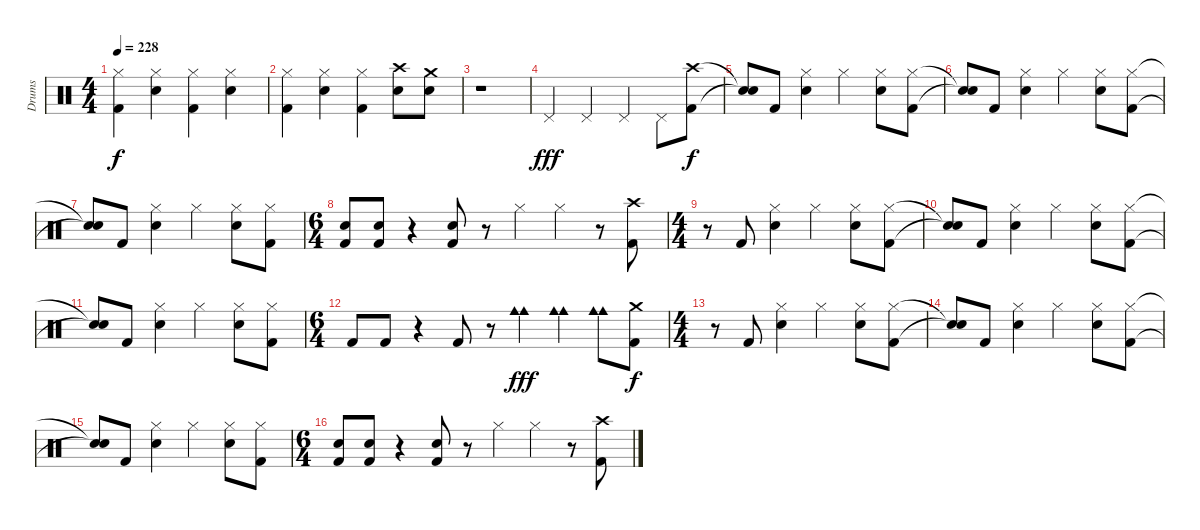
\track ("Drums" "Drums") {instrument percussion}
\staff {score}
\articulation defaults
\ts (4 4)
\tempo 228
\clef neutral
\ks c
("Hi-Hat (closed)" "Kick (hit) 2").4{dy f} ("Hi-Hat (closed)" "Electric Snare (hit)").4 ("Hi-Hat (closed)" "Kick (hit) 2").4 ("Hi-Hat (closed)" "Electric Snare (hit)").4 |
("Hi-Hat (closed)" "Kick (hit) 2").4 ("Hi-Hat (closed)" "Electric Snare (hit)").4 ("Hi-Hat (closed)" "Kick (hit) 2").4 ("Crash high (hit)" "Electric Snare (hit)").8 ("Crash medium (hit)" "Electric Snare (hit)").8 |
r.1 |
"Pedal Hi-Hat (hit)".4{dy fff} "Pedal Hi-Hat (hit)".4 "Pedal Hi-Hat (hit)".4 "Pedal Hi-Hat (hit)".8 ("Crash high (hit)" "Kick (hit) 2").8{dy f} |
("Snare (hit)"{t} "Snare (hit)"{t}).8 "Kick (hit) 2".8 ("Hi-Hat (closed)" "Electric Snare (hit)").4 "Hi-Hat (closed)".4 ("Hi-Hat (closed)" "Electric Snare (hit)").8 ("Hi-Hat (closed)" "Kick (hit) 2").8 |
("Snare (hit)"{t} "Snare (hit)"{t}).8 "Kick (hit) 2".8 ("Hi-Hat (closed)" "Electric Snare (hit)").4 "Hi-Hat (closed)".4 ("Hi-Hat (closed)" "Electric Snare (hit)").8 ("Hi-Hat (closed)" "Kick (hit) 2").8 |
("Snare (hit)"{t} "Snare (hit)"{t}).8 "Kick (hit) 2".8 ("Hi-Hat (closed)" "Electric Snare (hit)").4 "Hi-Hat (closed)".4 ("Hi-Hat (closed)" "Electric Snare (hit)").8 ("Hi-Hat (closed)" "Kick (hit) 2").8 |
\ts (6 4)
("Electric Snare (hit)" "Kick (hit) 2").8 ("Electric Snare (hit)" "Kick (hit) 2").8 r.4 ("Electric Snare (hit)" "Kick (hit) 2").8 r.8 "Hi-Hat (closed)".4 "Hi-Hat (closed)".4 r.8 ("Crash high (hit)" "Kick (hit) 2").8 |
\ts (4 4)
r.8 "Kick (hit) 2".8 ("Hi-Hat (closed)" "Electric Snare (hit)").4 "Hi-Hat (closed)".4 ("Hi-Hat (closed)" "Electric Snare (hit)").8 ("Hi-Hat (closed)" "Kick (hit) 2").8 |
("Snare (hit)"{t} "Snare (hit)"{t}).8 "Kick (hit) 2".8 ("Hi-Hat (closed)" "Electric Snare (hit)").4 "Hi-Hat (closed)".4 ("Hi-Hat (closed)" "Electric Snare (hit)").8 ("Hi-Hat (closed)" "Kick (hit) 2").8 |
("Snare (hit)"{t} "Snare (hit)"{t}).8 "Kick (hit) 2".8 ("Hi-Hat (closed)" "Electric Snare (hit)").4 "Hi-Hat (closed)".4 ("Hi-Hat (closed)" "Electric Snare (hit)").8 ("Hi-Hat (closed)" "Kick (hit) 2").8 |
\ts (6 4)
"Kick (hit) 2".8 "Kick (hit) 2".8 r.4 "Kick (hit) 2".8 r.8 ("Cowbell medium (hit)" "Cowbell medium (hit)").4{dy fff} ("Cowbell medium (hit)" "Cowbell medium (hit)").4 ("Cowbell medium (hit)" "Cowbell medium (hit)").8 ("Crash medium (hit)" "Kick (hit) 2").8{dy f} |
\ts (4 4)
r.8 "Kick (hit) 2".8 ("Hi-Hat (closed)" "Electric Snare (hit)").4 "Hi-Hat (closed)".4 ("Hi-Hat (closed)" "Electric Snare (hit)").8 ("Hi-Hat (closed)" "Kick (hit) 2").8 |
("Snare (hit)"{t} "Snare (hit)"{t}).8 "Kick (hit) 2".8 ("Hi-Hat (closed)" "Electric Snare (hit)").4 "Hi-Hat (closed)".4 ("Hi-Hat (closed)" "Electric Snare (hit)").8 ("Hi-Hat (closed)" "Kick (hit) 2").8 |
("Snare (hit)"{t} "Snare (hit)"{t}).8 "Kick (hit) 2".8 ("Hi-Hat (closed)" "Electric Snare (hit)").4 "Hi-Hat (closed)".4 ("Hi-Hat (closed)" "Electric Snare (hit)").8 ("Hi-Hat (closed)" "Kick (hit) 2").8 |
\ts (6 4)
("Electric Snare (hit)" "Kick (hit) 2").8 ("Electric Snare (hit)" "Kick (hit) 2").8 r.4 ("Electric Snare (hit)" "Kick (hit) 2").8 r.8 "Hi-Hat (closed)".4 "Hi-Hat (closed)".4 r.8 ("Crash high (hit)" "Kick (hit) 2").8
